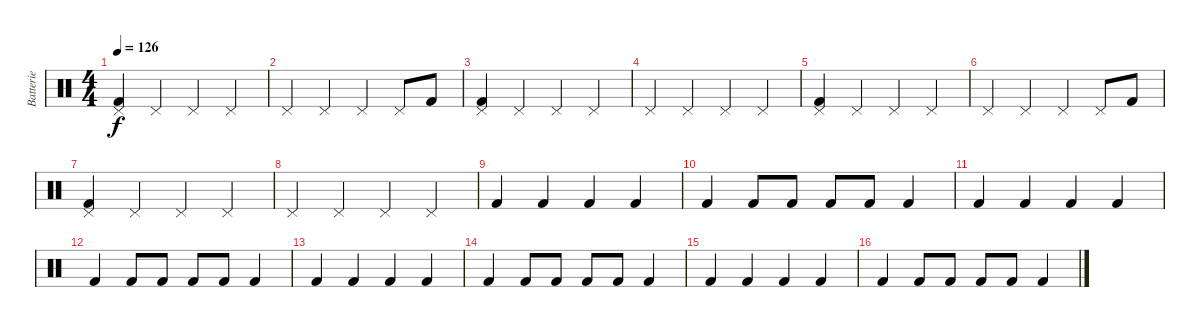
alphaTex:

\track ("Batterie" "Batterie") {instrument percussion}
\staff {score}
\articulation defaults
\ts (4 4)
\tempo 126
\clef neutral
\ks c
("Pedal Hi-Hat (hit)" "Kick (hit) 2").4{dy f} "Pedal Hi-Hat (hit)".4 "Pedal Hi-Hat (hit)".4 "Pedal Hi-Hat (hit)".4 |
"Pedal Hi-Hat (hit)".4 "Pedal Hi-Hat (hit)".4 "Pedal Hi-Hat (hit)".4 "Pedal Hi-Hat (hit)".8 "Kick (hit) 2".8 |
("Pedal Hi-Hat (hit)" "Kick (hit) 2").4 "Pedal Hi-Hat (hit)".4 "Pedal Hi-Hat (hit)".4 "Pedal Hi-Hat (hit)".4 |
"Pedal Hi-Hat (hit)".4 "Pedal Hi-Hat (hit)".4 "Pedal Hi-Hat (hit)".4 "Pedal Hi-Hat (hit)".4 |
("Pedal Hi-Hat (hit)" "Kick (hit) 2").4 "Pedal Hi-Hat (hit)".4 "Pedal Hi-Hat (hit)".4 "Pedal Hi-Hat (hit)".4 |
"Pedal Hi-Hat (hit)".4 "Pedal Hi-Hat (hit)".4 "Pedal Hi-Hat (hit)".4 "Pedal Hi-Hat (hit)".8 "Kick (hit) 2".8 |
("Pedal Hi-Hat (hit)" "Kick (hit) 2").4 "Pedal Hi-Hat (hit)".4 "Pedal Hi-Hat (hit)".4 "Pedal Hi-Hat (hit)".4 |
"Pedal Hi-Hat (hit)".4 "Pedal Hi-Hat (hit)".4 "Pedal Hi-Hat (hit)".4 "Pedal Hi-Hat (hit)".4 |
"Kick (hit) 2".4 "Kick (hit) 2".4 "Kick (hit) 2".4 "Kick (hit) 2".4 |
"Kick (hit) 2".4 "Kick (hit) 2".8 "Kick (hit) 2".8 "Kick (hit) 2".8 "Kick (hit) 2".8 "Kick (hit) 2".4 |
"Kick (hit) 2".4 "Kick (hit) 2".4 "Kick (hit) 2".4 "Kick (hit) 2".4 |
"Kick (hit) 2".4 "Kick (hit) 2".8 "Kick (hit) 2".8 "Kick (hit) 2".8 "Kick (hit) 2".8 "Kick (hit) 2".4 |
"Kick (hit) 2".4 "Kick (hit) 2".4 "Kick (hit) 2".4 "Kick (hit) 2".4 |
"Kick (hit) 2".4 "Kick (hit) 2".8 "Kick (hit) 2".8 "Kick (hit) 2".8 "Kick (hit) 2".8 "Kick (hit) 2".4 |
"Kick (hit) 2".4 "Kick (hit) 2".4 "Kick (hit) 2".4 "Kick (hit) 2".4 |
"Kick (hit) 2".4 "Kick (hit) 2".8 "Kick (hit) 2".8 "Kick (hit) 2".8 "Kick (hit) 2".8 "Kick (hit) 2".4
